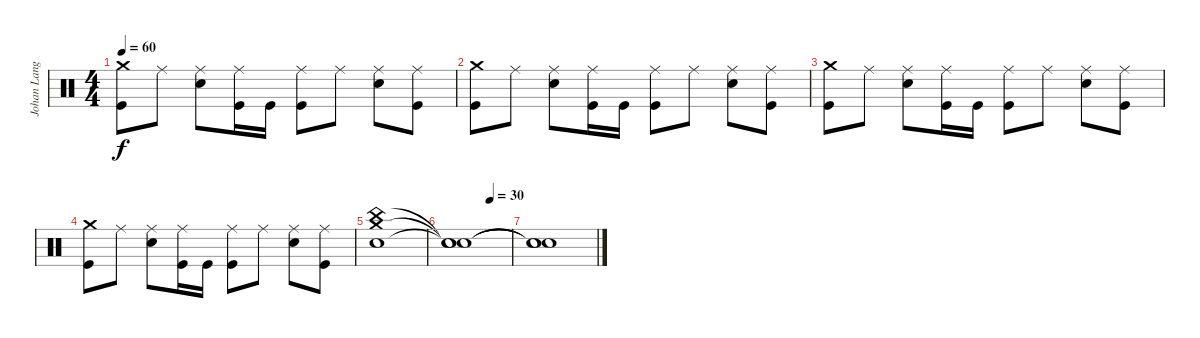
\track ("Johan Langell" "Johan Lang") {instrument percussion}
\staff {score}
\articulation defaults
\ts (4 4)
\tempo 60
\clef neutral
\ks c
("Crash medium (hit)" "Kick (hit)").8{dy f} "Ride (middle)".8 ("Ride (middle)" "Snare (hit) 2").8 ("Ride (middle)" "Kick (hit)").16 "Kick (hit)".16 ("Ride (middle)" "Kick (hit)").8 "Ride (middle)".8 ("Ride (middle)" "Snare (hit) 2").8 ("Ride (middle)" "Kick (hit)").8 |
("Crash medium (hit)" "Kick (hit)").8 "Ride (middle)".8 ("Ride (middle)" "Snare (hit) 2").8 ("Ride (middle)" "Kick (hit)").16 "Kick (hit)".16 ("Ride (middle)" "Kick (hit)").8 "Ride (middle)".8 ("Ride (middle)" "Snare (hit) 2").8 ("Ride (middle)" "Kick (hit)").8 |
("Crash medium (hit)" "Kick (hit)").8 "Ride (middle)".8 ("Ride (middle)" "Snare (hit) 2").8 ("Ride (middle)" "Kick (hit)").16 "Kick (hit)".16 ("Ride (middle)" "Kick (hit)").8 "Ride (middle)".8 ("Ride (middle)" "Snare (hit) 2").8 ("Ride (middle)" "Kick (hit)").8 |
("Crash medium (hit)" "Kick (hit)").8 "Ride (middle)".8 ("Ride (middle)" "Snare (hit) 2").8 ("Ride (middle)" "Kick (hit)").16 "Kick (hit)".16 ("Ride (middle)" "Kick (hit)").8 "Ride (middle)".8 ("Ride (middle)" "Snare (hit) 2").8 ("Ride (middle)" "Kick (hit)").8 |
("Crash medium (hit)" "China (hit)" "Snare (hit) 2").1 |
\tempo (30 0.625)
("Snare (hit)"{t} "Snare (hit)"{t} "Snare (hit)"{t}).1 |
("Snare (hit)"{t} "Snare (hit)"{t} "Snare (hit)"{t}).1
